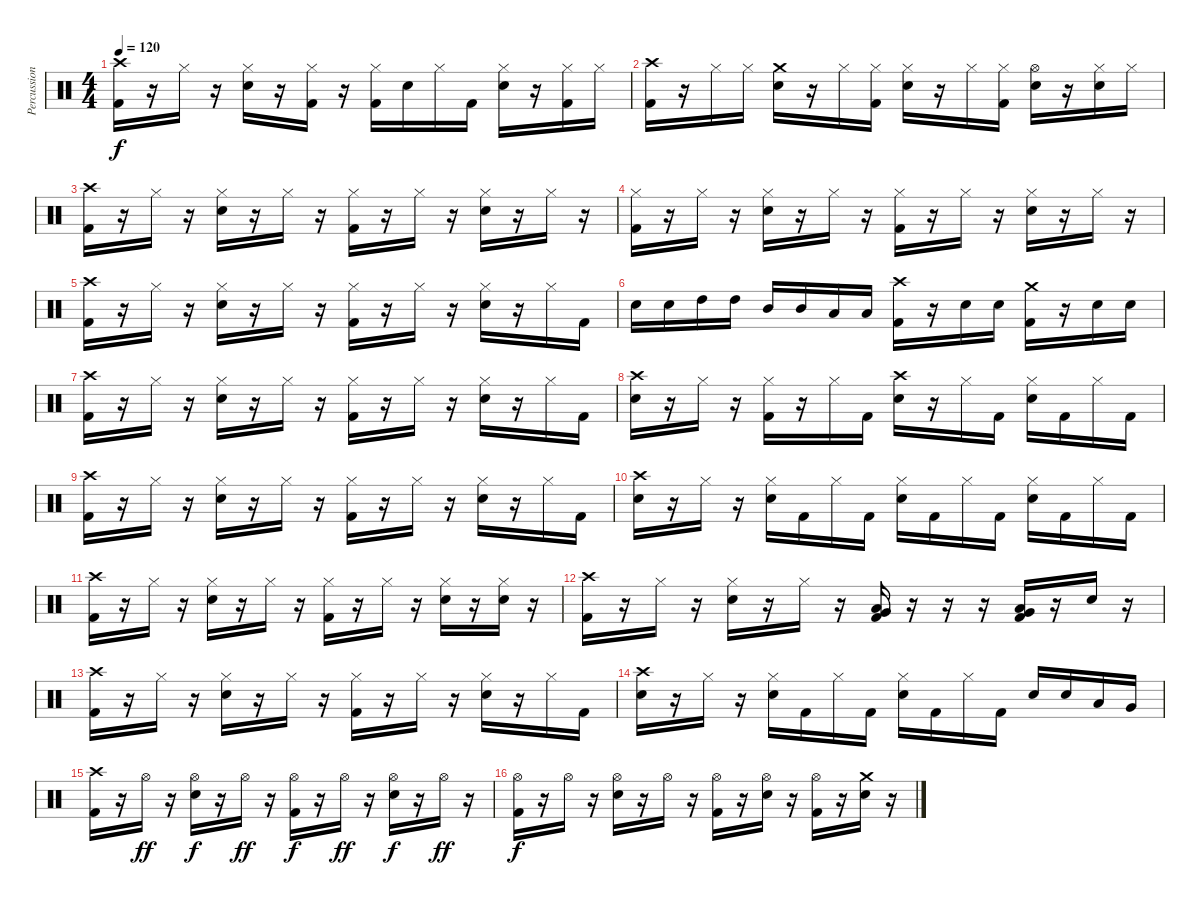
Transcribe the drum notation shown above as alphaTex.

\track ("Percussion" "Percussion") {instrument percussion}
\staff {score}
\articulation defaults
\ts (4 4)
\tempo 120
\clef neutral
\ks c
("Crash high (hit)" "Kick (hit) 2").16{dy f} r.16 "Hi-Hat (closed)".16 r.16 ("Hi-Hat (closed)" "Snare (hit) 2").16 r.16 ("Hi-Hat (closed)" "Kick (hit) 2").16 r.16 ("Hi-Hat (closed)" "Kick (hit) 2").16 "Snare (hit) 2".16 "Hi-Hat (closed)".16 "Kick (hit) 2".16 ("Hi-Hat (closed)" "Snare (hit) 2").16 r.16 ("Hi-Hat (closed)" "Kick (hit) 2").16 "Hi-Hat (closed)".16 |
("Crash high (hit)" "Kick (hit) 2").16 r.16 "Hi-Hat (closed)".16 "Hi-Hat (closed)".16 ("Crash medium (hit)" "Snare (hit) 2").16 r.16 "Hi-Hat (closed)".16 ("Hi-Hat (closed)" "Kick (hit) 2").16 ("Hi-Hat (closed)" "Snare (hit) 2").16 r.16 "Hi-Hat (closed)".16 ("Hi-Hat (closed)" "Kick (hit) 2").16 ("Hi-Hat (open)" "Snare (hit) 2").16 r.16 ("Hi-Hat (closed)" "Snare (hit) 2").16 "Hi-Hat (closed)".16 |
("Crash high (hit)" "Kick (hit) 2").16 r.16 "Hi-Hat (closed)".16 r.16 ("Hi-Hat (closed)" "Snare (hit) 2").16 r.16 "Hi-Hat (closed)".16 r.16 ("Hi-Hat (closed)" "Kick (hit) 2").16 r.16 "Hi-Hat (closed)".16 r.16 ("Hi-Hat (closed)" "Snare (hit) 2").16 r.16 "Hi-Hat (closed)".16 r.16 |
("Hi-Hat (closed)" "Kick (hit) 2").16 r.16 "Hi-Hat (closed)".16 r.16 ("Hi-Hat (closed)" "Snare (hit) 2").16 r.16 "Hi-Hat (closed)".16 r.16 ("Hi-Hat (closed)" "Kick (hit) 2").16 r.16 "Hi-Hat (closed)".16 r.16 ("Hi-Hat (closed)" "Snare (hit) 2").16 r.16 "Hi-Hat (closed)".16 r.16 |
("Crash high (hit)" "Kick (hit) 2").16 r.16 "Hi-Hat (closed)".16 r.16 ("Hi-Hat (closed)" "Snare (hit) 2").16 r.16 "Hi-Hat (closed)".16 r.16 ("Hi-Hat (closed)" "Kick (hit) 2").16 r.16 "Hi-Hat (closed)".16 r.16 ("Hi-Hat (closed)" "Snare (hit) 2").16 r.16 "Hi-Hat (closed)".16 "Kick (hit) 2".16 |
"Snare (hit) 2".16 "Snare (hit) 2".16 "High Tom (hit)".16 "High Tom (hit)".16 "Mid Tom (hit)".16 "Mid Tom (hit)".16 "Low Tom (hit)".16 "Low Tom (hit)".16 ("Crash high (hit)" "Kick (hit) 2").16 r.16 "Snare (hit) 2".16 "Snare (hit) 2".16 ("Crash medium (hit)" "Kick (hit) 2").16 r.16 "Snare (hit) 2".16 "Snare (hit) 2".16 |
("Crash high (hit)" "Kick (hit) 2").16 r.16 "Hi-Hat (closed)".16 r.16 ("Hi-Hat (closed)" "Snare (hit) 2").16 r.16 "Hi-Hat (closed)".16 r.16 ("Hi-Hat (closed)" "Kick (hit) 2").16 r.16 "Hi-Hat (closed)".16 r.16 ("Hi-Hat (closed)" "Snare (hit) 2").16 r.16 "Hi-Hat (closed)".16 "Kick (hit) 2".16 |
("Crash high (hit)" "Snare (hit) 2").16 r.16 "Hi-Hat (closed)".16 r.16 ("Hi-Hat (closed)" "Kick (hit) 2").16 r.16 "Hi-Hat (closed)".16 "Kick (hit) 2".16 ("Crash high (hit)" "Snare (hit) 2").16 r.16 "Hi-Hat (closed)".16 "Kick (hit) 2".16 ("Hi-Hat (closed)" "Snare (hit) 2").16 "Kick (hit) 2".16 "Hi-Hat (closed)".16 "Kick (hit) 2".16 |
("Crash high (hit)" "Kick (hit) 2").16 r.16 "Hi-Hat (closed)".16 r.16 ("Hi-Hat (closed)" "Snare (hit) 2").16 r.16 "Hi-Hat (closed)".16 r.16 ("Hi-Hat (closed)" "Kick (hit) 2").16 r.16 "Hi-Hat (closed)".16 r.16 ("Hi-Hat (closed)" "Snare (hit) 2").16 r.16 "Hi-Hat (closed)".16 "Kick (hit) 2".16 |
("Crash high (hit)" "Snare (hit) 2").16 r.16 "Hi-Hat (closed)".16 r.16 ("Hi-Hat (closed)" "Snare (hit) 2").16 "Kick (hit) 2".16 "Hi-Hat (closed)".16 "Kick (hit) 2".16 ("Hi-Hat (closed)" "Snare (hit) 2").16 "Kick (hit) 2".16 "Hi-Hat (closed)".16 "Kick (hit) 2".16 ("Hi-Hat (closed)" "Snare (hit) 2").16 "Kick (hit) 2".16 "Hi-Hat (closed)".16 "Kick (hit) 2".16 |
("Crash high (hit)" "Kick (hit) 2").16 r.16 "Hi-Hat (closed)".16 r.16 ("Hi-Hat (closed)" "Snare (hit) 2").16 r.16 "Hi-Hat (closed)".16 r.16 ("Hi-Hat (closed)" "Kick (hit) 2").16 r.16 "Hi-Hat (closed)".16 r.16 ("Hi-Hat (closed)" "Snare (hit) 2").16 r.16 ("Hi-Hat (closed)" "Snare (hit) 2").16 r.16 |
("Crash high (hit)" "Kick (hit) 2").16 r.16 "Hi-Hat (closed)".16 r.16 ("Hi-Hat (closed)" "Snare (hit) 2").16 r.16 "Hi-Hat (closed)".16 r.16 ("Low Tom (hit)" "Very Low Tom (hit)" "Kick (hit) 2").16 r.16 r.16 r.16 ("Very Low Tom (hit)" "Low Floor Tom (hit)" "Kick (hit) 2").16 r.16 "Snare (hit) 2".16 r.16 |
("Crash high (hit)" "Kick (hit) 2").16 r.16 "Hi-Hat (closed)".16 r.16 ("Hi-Hat (closed)" "Snare (hit) 2").16 r.16 "Hi-Hat (closed)".16 r.16 ("Hi-Hat (closed)" "Kick (hit) 2").16 r.16 "Hi-Hat (closed)".16 r.16 ("Hi-Hat (closed)" "Snare (hit) 2").16 r.16 "Hi-Hat (closed)".16 "Kick (hit) 2".16 |
("Crash high (hit)" "Snare (hit) 2").16 r.16 "Hi-Hat (closed)".16 r.16 ("Hi-Hat (closed)" "Snare (hit) 2").16 "Kick (hit) 2".16 "Hi-Hat (closed)".16 "Kick (hit) 2".16 ("Hi-Hat (closed)" "Snare (hit) 2").16 "Kick (hit) 2".16 "Hi-Hat (closed)".16 "Kick (hit) 2".16 "Snare (hit) 2".16 "Snare (hit) 2".16 "Low Tom (hit)".16 "Very Low Tom (hit)".16 |
("Crash high (hit)" "Kick (hit) 2").16 r.16 "Hi-Hat (open)".16{dy ff} r.16 ("Hi-Hat (open)" "Snare (hit) 2").16{dy f} r.16 "Hi-Hat (open)".16{dy ff} r.16 ("Hi-Hat (open)" "Kick (hit) 2").16{dy f} r.16 "Hi-Hat (open)".16{dy ff} r.16 ("Hi-Hat (open)" "Snare (hit) 2").16{dy f} r.16 "Hi-Hat (open)".16{dy ff} r.16 |
("Hi-Hat (open)" "Kick (hit) 2").16{dy f} r.16 "Hi-Hat (open)".16 r.16 ("Hi-Hat (open)" "Snare (hit) 2").16 r.16 "Hi-Hat (open)".16 r.16 ("Hi-Hat (open)" "Kick (hit) 2").16 r.16 ("Hi-Hat (open)" "Snare (hit) 2").16 r.16 ("Hi-Hat (open)" "Kick (hit) 2").16 r.16 ("Crash medium (hit)" "Snare (hit) 2").16 r.16
